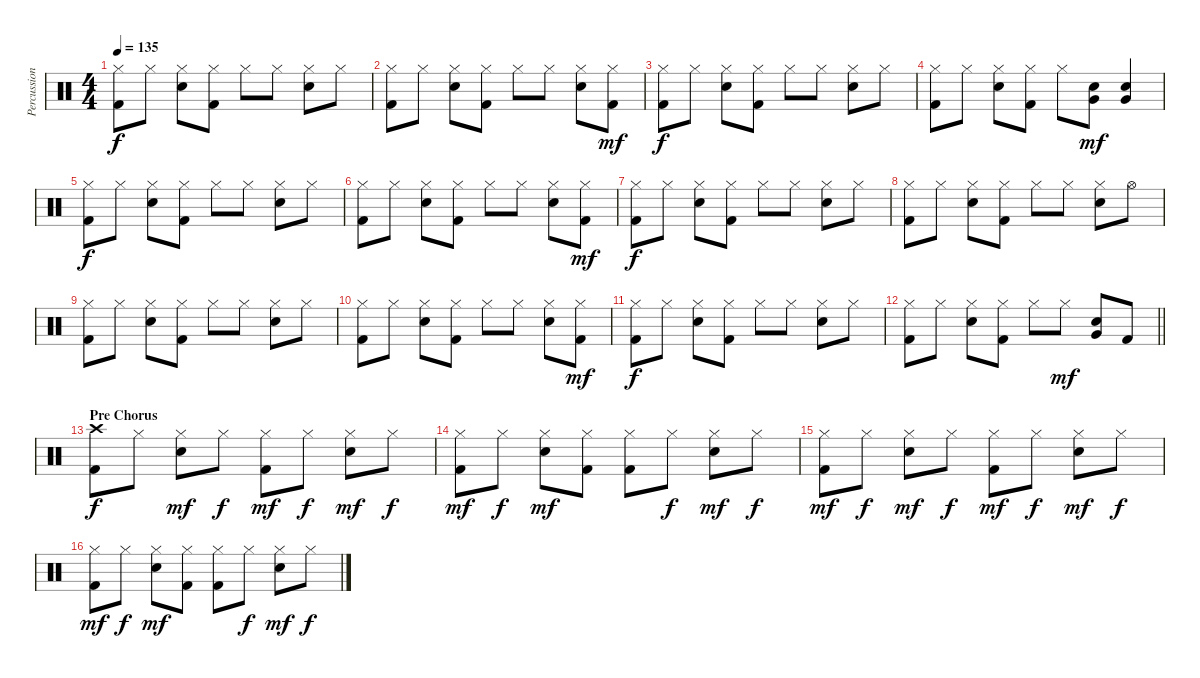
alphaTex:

\track ("Percussion" "Percussion") {instrument percussion}
\staff {score}
\articulation defaults
\ts (4 4)
\tempo 135
\clef neutral
\ks c
("Hi-Hat (closed)" "Kick (hit) 2").8{dy f} "Hi-Hat (closed)".8 ("Hi-Hat (closed)" "Electric Snare (hit)").8 ("Hi-Hat (closed)" "Kick (hit) 2").8 "Hi-Hat (closed)".8 "Hi-Hat (closed)".8 ("Hi-Hat (closed)" "Electric Snare (hit)").8 "Hi-Hat (closed)".8 |
("Hi-Hat (closed)" "Kick (hit) 2").8 "Hi-Hat (closed)".8 ("Hi-Hat (closed)" "Electric Snare (hit)").8 ("Hi-Hat (closed)" "Kick (hit) 2").8 "Hi-Hat (closed)".8 "Hi-Hat (closed)".8 ("Hi-Hat (closed)" "Electric Snare (hit)").8 ("Hi-Hat (closed)" "Kick (hit) 2").8{dy mf} |
("Hi-Hat (closed)" "Kick (hit) 2").8{dy f} "Hi-Hat (closed)".8 ("Hi-Hat (closed)" "Electric Snare (hit)").8 ("Hi-Hat (closed)" "Kick (hit) 2").8 "Hi-Hat (closed)".8 "Hi-Hat (closed)".8 ("Hi-Hat (closed)" "Electric Snare (hit)").8 "Hi-Hat (closed)".8 |
("Hi-Hat (closed)" "Kick (hit) 2").8 "Hi-Hat (closed)".8 ("Hi-Hat (closed)" "Electric Snare (hit)").8 ("Hi-Hat (closed)" "Kick (hit) 2").8 "Hi-Hat (closed)".8 ("Very Low Tom (hit)" "Electric Snare (hit)").8{dy mf} ("Very Low Tom (hit)" "Electric Snare (hit)").4 |
("Hi-Hat (closed)" "Kick (hit) 2").8{dy f} "Hi-Hat (closed)".8 ("Hi-Hat (closed)" "Electric Snare (hit)").8 ("Hi-Hat (closed)" "Kick (hit) 2").8 "Hi-Hat (closed)".8 "Hi-Hat (closed)".8 ("Hi-Hat (closed)" "Electric Snare (hit)").8 "Hi-Hat (closed)".8 |
("Hi-Hat (closed)" "Kick (hit) 2").8 "Hi-Hat (closed)".8 ("Hi-Hat (closed)" "Electric Snare (hit)").8 ("Hi-Hat (closed)" "Kick (hit) 2").8 "Hi-Hat (closed)".8 "Hi-Hat (closed)".8 ("Hi-Hat (closed)" "Electric Snare (hit)").8 ("Hi-Hat (closed)" "Kick (hit) 2").8{dy mf} |
("Hi-Hat (closed)" "Kick (hit) 2").8{dy f} "Hi-Hat (closed)".8 ("Hi-Hat (closed)" "Electric Snare (hit)").8 ("Hi-Hat (closed)" "Kick (hit) 2").8 "Hi-Hat (closed)".8 "Hi-Hat (closed)".8 ("Hi-Hat (closed)" "Electric Snare (hit)").8 "Hi-Hat (closed)".8 |
("Hi-Hat (closed)" "Kick (hit) 2").8 "Hi-Hat (closed)".8 ("Hi-Hat (closed)" "Electric Snare (hit)").8 ("Hi-Hat (closed)" "Kick (hit) 2").8 "Hi-Hat (closed)".8 "Hi-Hat (closed)".8 ("Hi-Hat (closed)" "Electric Snare (hit)").8 "Hi-Hat (open)".8 |
("Hi-Hat (closed)" "Kick (hit) 2").8 "Hi-Hat (closed)".8 ("Hi-Hat (closed)" "Electric Snare (hit)").8 ("Hi-Hat (closed)" "Kick (hit) 2").8 "Hi-Hat (closed)".8 "Hi-Hat (closed)".8 ("Hi-Hat (closed)" "Electric Snare (hit)").8 "Hi-Hat (closed)".8 |
("Hi-Hat (closed)" "Kick (hit) 2").8 "Hi-Hat (closed)".8 ("Hi-Hat (closed)" "Electric Snare (hit)").8 ("Hi-Hat (closed)" "Kick (hit) 2").8 "Hi-Hat (closed)".8 "Hi-Hat (closed)".8 ("Hi-Hat (closed)" "Electric Snare (hit)").8 ("Hi-Hat (closed)" "Kick (hit) 2").8{dy mf} |
("Hi-Hat (closed)" "Kick (hit) 2").8{dy f} "Hi-Hat (closed)".8 ("Hi-Hat (closed)" "Electric Snare (hit)").8 ("Hi-Hat (closed)" "Kick (hit) 2").8 "Hi-Hat (closed)".8 "Hi-Hat (closed)".8 ("Hi-Hat (closed)" "Electric Snare (hit)").8 "Hi-Hat (closed)".8 |
\barLineRight lightlight
("Hi-Hat (closed)" "Kick (hit) 2").8 "Hi-Hat (closed)".8 ("Hi-Hat (closed)" "Electric Snare (hit)").8 ("Hi-Hat (closed)" "Kick (hit) 2").8 "Hi-Hat (closed)".8 "Hi-Hat (closed)".8{dy mf} ("Very Low Tom (hit)" "Electric Snare (hit)").8 "Kick (hit) 2".8 |
\section ("" "Pre Chorus")
("Crash high (hit)" "Kick (hit) 2").8{dy f} "Hi-Hat (closed)".8 ("Hi-Hat (closed)" "Electric Snare (hit)").8{dy mf} "Hi-Hat (closed)".8{dy f} ("Hi-Hat (closed)" "Kick (hit) 2").8{dy mf} "Hi-Hat (closed)".8{dy f} ("Hi-Hat (closed)" "Electric Snare (hit)").8{dy mf} "Hi-Hat (closed)".8{dy f} |
("Hi-Hat (closed)" "Kick (hit) 2").8{dy mf} "Hi-Hat (closed)".8{dy f} ("Hi-Hat (closed)" "Electric Snare (hit)").8{dy mf} ("Hi-Hat (closed)" "Kick (hit) 2").8 ("Hi-Hat (closed)" "Kick (hit) 2").8 "Hi-Hat (closed)".8{dy f} ("Hi-Hat (closed)" "Electric Snare (hit)").8{dy mf} "Hi-Hat (closed)".8{dy f} |
("Hi-Hat (closed)" "Kick (hit) 2").8{dy mf} "Hi-Hat (closed)".8{dy f} ("Hi-Hat (closed)" "Electric Snare (hit)").8{dy mf} "Hi-Hat (closed)".8{dy f} ("Hi-Hat (closed)" "Kick (hit) 2").8{dy mf} "Hi-Hat (closed)".8{dy f} ("Hi-Hat (closed)" "Electric Snare (hit)").8{dy mf} "Hi-Hat (closed)".8{dy f} |
("Hi-Hat (closed)" "Kick (hit) 2").8{dy mf} "Hi-Hat (closed)".8{dy f} ("Hi-Hat (closed)" "Electric Snare (hit)").8{dy mf} ("Hi-Hat (closed)" "Kick (hit) 2").8 ("Hi-Hat (closed)" "Kick (hit) 2").8 "Hi-Hat (closed)".8{dy f} ("Hi-Hat (closed)" "Electric Snare (hit)").8{dy mf} "Hi-Hat (closed)".8{dy f}
